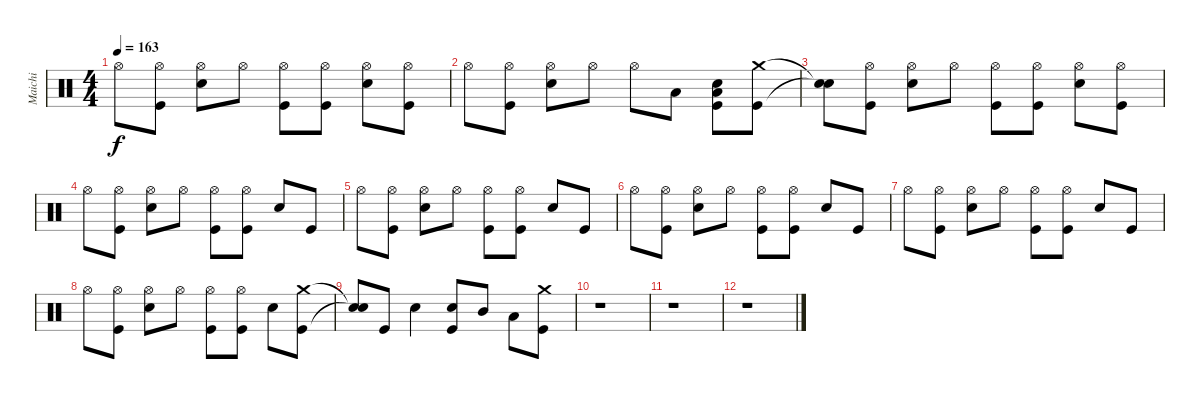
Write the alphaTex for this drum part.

\track ("Maichi" "Maichi") {instrument percussion}
\staff {score}
\articulation defaults
\ts (4 4)
\tempo 163
\clef neutral
\ks c "Hi-Hat (open)".8{dy f}
("Hi-Hat (open)" "Kick (hit)").8 ("Hi-Hat (open)" "Electric Snare (hit)").8 "Hi-Hat (open)".8 ("Hi-Hat (open)" "Kick (hit)").8 ("Kick (hit)" "Hi-Hat (open)").8 ("Hi-Hat (open)" "Electric Snare (hit)").8 ("Hi-Hat (open)" "Kick (hit)").8 |
"Hi-Hat (open)".8 ("Kick (hit)" "Hi-Hat (open)").8 ("Hi-Hat (open)" "Electric Snare (hit)").8 "Hi-Hat (open)".8 "Hi-Hat (open)".8 "Low Tom (hit)".8 ("Low Tom (hit)" "Electric Snare (hit)" "Kick (hit)").8 ("Kick (hit)" "Crash medium (hit)").8 |
("Snare (hit)"{t} "Snare (hit)"{t}).8 ("Hi-Hat (open)" "Kick (hit)").8 ("Electric Snare (hit)" "Hi-Hat (open)").8 "Hi-Hat (open)".8 ("Hi-Hat (open)" "Kick (hit)").8 ("Kick (hit)" "Hi-Hat (open)").8 ("Hi-Hat (open)" "Electric Snare (hit)").8 ("Hi-Hat (open)" "Kick (hit)").8 |
"Hi-Hat (open)".8 ("Hi-Hat (open)" "Kick (hit)").8 ("Electric Snare (hit)" "Hi-Hat (open)").8 "Hi-Hat (open)".8 ("Hi-Hat (open)" "Kick (hit)").8 ("Kick (hit)" "Hi-Hat (open)").8 "Electric Snare (hit)".8 "Kick (hit)".8 |
"Hi-Hat (open)".8 ("Hi-Hat (open)" "Kick (hit)").8 ("Electric Snare (hit)" "Hi-Hat (open)").8 "Hi-Hat (open)".8 ("Hi-Hat (open)" "Kick (hit)").8 ("Kick (hit)" "Hi-Hat (open)").8 "Electric Snare (hit)".8 "Kick (hit)".8 |
"Hi-Hat (open)".8 ("Hi-Hat (open)" "Kick (hit)").8 ("Electric Snare (hit)" "Hi-Hat (open)").8 "Hi-Hat (open)".8 ("Hi-Hat (open)" "Kick (hit)").8 ("Kick (hit)" "Hi-Hat (open)").8 "Electric Snare (hit)".8 "Kick (hit)".8 |
"Hi-Hat (open)".8 ("Kick (hit)" "Hi-Hat (open)").8 ("Hi-Hat (open)" "Electric Snare (hit)").8 "Hi-Hat (open)".8 ("Kick (hit)" "Hi-Hat (open)").8 ("Hi-Hat (open)" "Kick (hit)").8 "Electric Snare (hit)".8 "Kick (hit)".8 |
"Hi-Hat (open)".8 ("Kick (hit)" "Hi-Hat (open)").8 ("Electric Snare (hit)" "Hi-Hat (open)").8 "Hi-Hat (open)".8 ("Hi-Hat (open)" "Kick (hit)").8 ("Kick (hit)" "Hi-Hat (open)").8 "Electric Snare (hit)".8 ("Crash medium (hit)" "Kick (hit)").8 |
("Snare (hit)"{t} "Snare (hit)"{t}).8 "Kick (hit)".8 "Electric Snare (hit)".4 ("Kick (hit)" "Electric Snare (hit)").8 "Mid Tom (hit)".8 "Low Tom (hit)".8 ("Crash medium (hit)" "Kick (hit)").8 |
r.1 |
r.1 |
r.1
